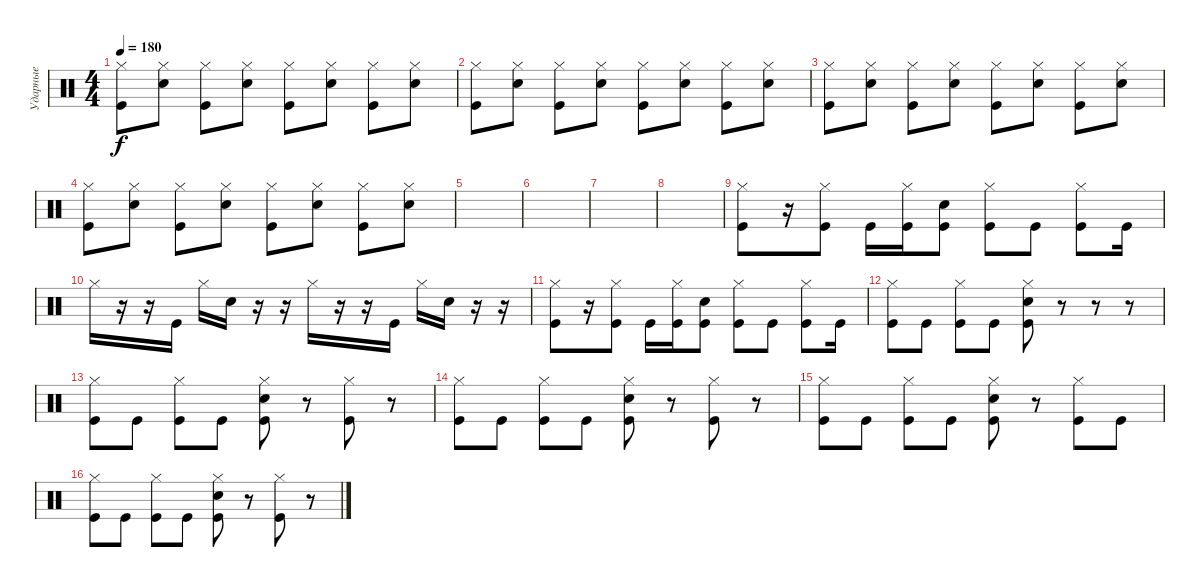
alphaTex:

\track ("Ударные" "Ударные") {instrument percussion}
\staff {score}
\articulation defaults
\ts (4 4)
\tempo 180
\clef neutral
\ks c
("Hi-Hat (closed)" "Kick (hit)").8{dy f} ("Hi-Hat (closed)" "Electric Snare (hit)").8 ("Hi-Hat (closed)" "Kick (hit)").8 ("Hi-Hat (closed)" "Electric Snare (hit)").8 ("Hi-Hat (closed)" "Kick (hit)").8 ("Hi-Hat (closed)" "Electric Snare (hit)").8 ("Hi-Hat (closed)" "Kick (hit)").8 ("Hi-Hat (closed)" "Electric Snare (hit)").8 |
("Hi-Hat (closed)" "Kick (hit)").8 ("Hi-Hat (closed)" "Electric Snare (hit)").8 ("Hi-Hat (closed)" "Kick (hit)").8 ("Hi-Hat (closed)" "Electric Snare (hit)").8 ("Hi-Hat (closed)" "Kick (hit)").8 ("Hi-Hat (closed)" "Electric Snare (hit)").8 ("Hi-Hat (closed)" "Kick (hit)").8 ("Hi-Hat (closed)" "Electric Snare (hit)").8 |
("Hi-Hat (closed)" "Kick (hit)").8 ("Hi-Hat (closed)" "Electric Snare (hit)").8 ("Hi-Hat (closed)" "Kick (hit)").8 ("Hi-Hat (closed)" "Electric Snare (hit)").8 ("Hi-Hat (closed)" "Kick (hit)").8 ("Hi-Hat (closed)" "Electric Snare (hit)").8 ("Hi-Hat (closed)" "Kick (hit)").8 ("Hi-Hat (closed)" "Electric Snare (hit)").8 |
("Hi-Hat (closed)" "Kick (hit)").8 ("Hi-Hat (closed)" "Electric Snare (hit)").8 ("Hi-Hat (closed)" "Kick (hit)").8 ("Hi-Hat (closed)" "Electric Snare (hit)").8 ("Hi-Hat (closed)" "Kick (hit)").8 ("Hi-Hat (closed)" "Electric Snare (hit)").8 ("Hi-Hat (closed)" "Kick (hit)").8 ("Hi-Hat (closed)" "Electric Snare (hit)").8 |
|
|
|
|
("Hi-Hat (closed)" "Kick (hit)").8 r.16 ("Hi-Hat (closed)" "Kick (hit)").8 "Kick (hit)".16 ("Hi-Hat (closed)" "Kick (hit)").16 ("Kick (hit)" "Electric Snare (hit)").8 ("Hi-Hat (closed)" "Kick (hit)").8 "Kick (hit)".8 ("Hi-Hat (closed)" "Kick (hit)").8 "Kick (hit)".16 |
"Hi-Hat (closed)".16 r.16 r.16 "Kick (hit)".16 "Hi-Hat (closed)".16 "Electric Snare (hit)".16 r.16 r.16 "Hi-Hat (closed)".16 r.16 r.16 "Kick (hit)".16 "Hi-Hat (closed)".16 "Electric Snare (hit)".16 r.16 r.16 |
("Hi-Hat (closed)" "Kick (hit)").8 r.16 ("Hi-Hat (closed)" "Kick (hit)").8 "Kick (hit)".16 ("Hi-Hat (closed)" "Kick (hit)").16 ("Kick (hit)" "Electric Snare (hit)").8 ("Hi-Hat (closed)" "Kick (hit)").8 "Kick (hit)".8 ("Hi-Hat (closed)" "Kick (hit)").8 "Kick (hit)".16 |
("Hi-Hat (closed)" "Kick (hit)").8 "Kick (hit)".8 ("Hi-Hat (closed)" "Kick (hit)").8 "Kick (hit)".8 ("Hi-Hat (closed)" "Kick (hit)" "Electric Snare (hit)").8 r.8 r.8 r.8 |
("Hi-Hat (closed)" "Kick (hit)").8 "Kick (hit)".8 ("Hi-Hat (closed)" "Kick (hit)").8 "Kick (hit)".8 ("Hi-Hat (closed)" "Kick (hit)" "Electric Snare (hit)").8 r.8 ("Hi-Hat (closed)" "Kick (hit)").8 r.8 |
("Hi-Hat (closed)" "Kick (hit)").8 "Kick (hit)".8 ("Hi-Hat (closed)" "Kick (hit)").8 "Kick (hit)".8 ("Hi-Hat (closed)" "Kick (hit)" "Electric Snare (hit)").8 r.8 ("Hi-Hat (closed)" "Kick (hit)").8 r.8 |
("Hi-Hat (closed)" "Kick (hit)").8 "Kick (hit)".8 ("Hi-Hat (closed)" "Kick (hit)").8 "Kick (hit)".8 ("Hi-Hat (closed)" "Kick (hit)" "Electric Snare (hit)").8 r.8 ("Hi-Hat (closed)" "Kick (hit)").8 "Kick (hit)".8 |
("Hi-Hat (closed)" "Kick (hit)").8 "Kick (hit)".8 ("Hi-Hat (closed)" "Kick (hit)").8 "Kick (hit)".8 ("Hi-Hat (closed)" "Kick (hit)" "Electric Snare (hit)").8 r.8 ("Hi-Hat (closed)" "Kick (hit)").8 r.8
